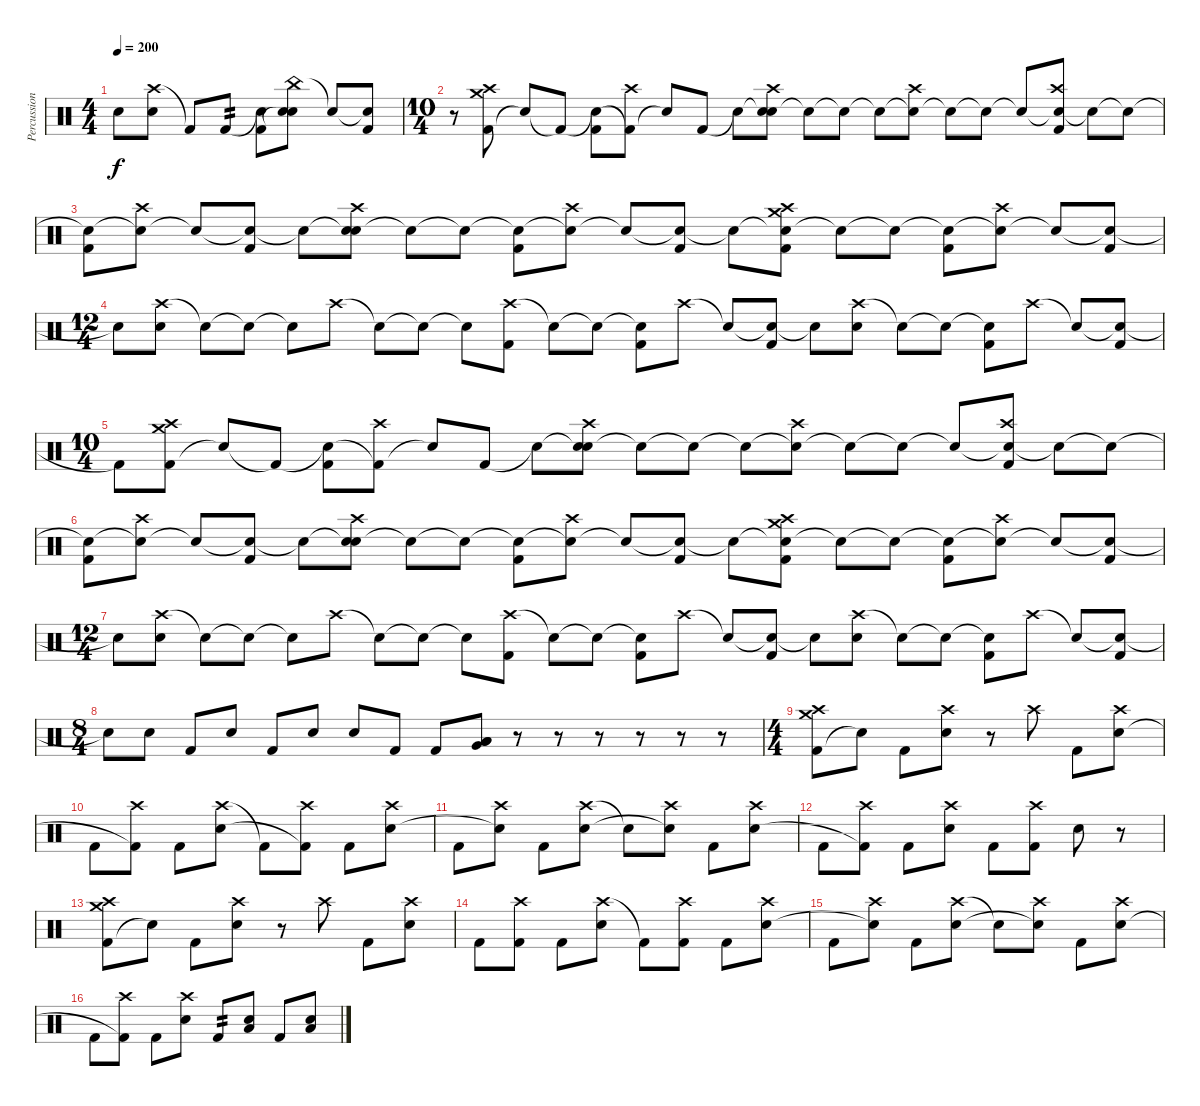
\track ("Percussion" "Percussion") {instrument percussion}
\staff {score}
\articulation defaults
\ts (4 4)
\tempo 200
\clef neutral
\ks c "Snare (hit)"{t}.8{dy f}
("Crash high (hit)" "Snare (hit) 2").8 "Kick (hit) 2"{t}.8 "Kick (hit) 2".8{tp 2} ("Snare (hit)"{t} "Kick (hit) 2").8 ("China (hit)" "Snare (hit)"{t} "Snare (hit) 2").8 "Snare (hit)"{t}.8 ("Snare (hit)"{t} "Kick (hit) 2").8 |
\ts (10 4)
r.8 ("Kick (hit) 2" "Crash high (hit)" "Crash medium (hit)").8 "Snare (hit)"{t}.8 "Kick (hit) 2"{t}.8 ("Snare (hit)"{t} "Kick (hit) 2").8 ("Kick (hit) 2"{t} "Crash high (hit)").8 "Snare (hit)"{t}.8 "Kick (hit) 2".8 "Snare (hit)"{t}.8 ("Snare (hit)"{t} "Snare (hit) 2" "Crash high (hit)").8 "Snare (hit)"{t}.8 "Snare (hit)"{t}.8 "Snare (hit)"{t}.8 ("Snare (hit)"{t} "Crash high (hit)").8 "Snare (hit)"{t}.8 "Snare (hit)"{t}.8 "Snare (hit)"{t}.8 ("Snare (hit)"{t} "Kick (hit) 2" "Crash high (hit)").8 "Snare (hit)"{t}.8 "Snare (hit)"{t}.8 |
("Snare (hit)"{t} "Kick (hit) 2").8 ("Snare (hit)"{t} "Crash high (hit)").8 "Snare (hit)"{t}.8 ("Snare (hit)"{t} "Kick (hit) 2").8 "Snare (hit)"{t}.8 ("Snare (hit)"{t} "Crash high (hit)" "Snare (hit) 2").8 "Snare (hit)"{t}.8 "Snare (hit)"{t}.8 ("Snare (hit)"{t} "Kick (hit) 2").8 ("Snare (hit)"{t} "Crash high (hit)").8 "Snare (hit)"{t}.8 ("Snare (hit)"{t} "Kick (hit) 2").8 "Snare (hit)"{t}.8 ("Snare (hit)"{t} "Crash medium (hit)" "Crash high (hit)" "Kick (hit) 2").8 "Snare (hit)"{t}.8 "Snare (hit)"{t}.8 ("Snare (hit)"{t} "Kick (hit) 2").8 ("Snare (hit)"{t} "Crash high (hit)").8 "Snare (hit)"{t}.8 ("Snare (hit)"{t} "Kick (hit) 2").8 |
\ts (12 4)
"Snare (hit)"{t}.8 ("Crash high (hit)" "Snare (hit) 2").8 "Snare (hit)"{t}.8 "Snare (hit)"{t}.8 "Snare (hit)"{t}.8 "Crash high (hit)".8 "Snare (hit)"{t}.8 "Snare (hit)"{t}.8 "Snare (hit)"{t}.8 ("Crash high (hit)" "Kick (hit) 2").8 "Snare (hit)"{t}.8 "Snare (hit)"{t}.8 ("Snare (hit)"{t} "Kick (hit) 2").8 "Crash high (hit)".8 "Snare (hit)"{t}.8 ("Snare (hit)"{t} "Kick (hit) 2").8 "Snare (hit)"{t}.8 ("Crash high (hit)" "Snare (hit) 2").8 "Snare (hit)"{t}.8 "Snare (hit)"{t}.8 ("Snare (hit)"{t} "Kick (hit) 2").8 "Crash high (hit)".8 "Snare (hit)"{t}.8 ("Snare (hit)"{t} "Kick (hit) 2").8 |
\ts (10 4)
"Kick (hit) 2"{t}.8 ("Kick (hit) 2" "Crash high (hit)" "Crash medium (hit)").8 "Snare (hit)"{t}.8 "Kick (hit) 2"{t}.8 ("Snare (hit)"{t} "Kick (hit) 2").8 ("Kick (hit) 2"{t} "Crash high (hit)").8 "Snare (hit)"{t}.8 "Kick (hit) 2".8 "Snare (hit)"{t}.8 ("Snare (hit)"{t} "Snare (hit) 2" "Crash high (hit)").8 "Snare (hit)"{t}.8 "Snare (hit)"{t}.8 "Snare (hit)"{t}.8 ("Snare (hit)"{t} "Crash high (hit)").8 "Snare (hit)"{t}.8 "Snare (hit)"{t}.8 "Snare (hit)"{t}.8 ("Snare (hit)"{t} "Kick (hit) 2" "Crash high (hit)").8 "Snare (hit)"{t}.8 "Snare (hit)"{t}.8 |
("Snare (hit)"{t} "Kick (hit) 2").8 ("Snare (hit)"{t} "Crash high (hit)").8 "Snare (hit)"{t}.8 ("Snare (hit)"{t} "Kick (hit) 2").8 "Snare (hit)"{t}.8 ("Snare (hit)"{t} "Crash high (hit)" "Snare (hit) 2").8 "Snare (hit)"{t}.8 "Snare (hit)"{t}.8 ("Snare (hit)"{t} "Kick (hit) 2").8 ("Snare (hit)"{t} "Crash high (hit)").8 "Snare (hit)"{t}.8 ("Snare (hit)"{t} "Kick (hit) 2").8 "Snare (hit)"{t}.8 ("Snare (hit)"{t} "Crash medium (hit)" "Crash high (hit)" "Kick (hit) 2").8 "Snare (hit)"{t}.8 "Snare (hit)"{t}.8 ("Snare (hit)"{t} "Kick (hit) 2").8 ("Snare (hit)"{t} "Crash high (hit)").8 "Snare (hit)"{t}.8 ("Snare (hit)"{t} "Kick (hit) 2").8 |
\ts (12 4)
"Snare (hit)"{t}.8 ("Crash high (hit)" "Snare (hit) 2").8 "Snare (hit)"{t}.8 "Snare (hit)"{t}.8 "Snare (hit)"{t}.8 "Crash high (hit)".8 "Snare (hit)"{t}.8 "Snare (hit)"{t}.8 "Snare (hit)"{t}.8 ("Crash high (hit)" "Kick (hit) 2").8 "Snare (hit)"{t}.8 "Snare (hit)"{t}.8 ("Snare (hit)"{t} "Kick (hit) 2").8 "Crash high (hit)".8 "Snare (hit)"{t}.8 ("Snare (hit)"{t} "Kick (hit) 2").8 "Snare (hit)"{t}.8 ("Crash high (hit)" "Snare (hit) 2").8 "Snare (hit)"{t}.8 "Snare (hit)"{t}.8 ("Snare (hit)"{t} "Kick (hit) 2").8 "Crash high (hit)".8 "Snare (hit)"{t}.8 ("Snare (hit)"{t} "Kick (hit) 2").8 |
\ts (8 4)
"Snare (hit)"{t}.8 "Snare (hit) 2".8 "Kick (hit) 2".8 "Snare (hit) 2".8 "Kick (hit) 2".8 "Snare (hit) 2".8 "Snare (hit) 2".8 "Kick (hit) 2".8 "Kick (hit) 2".8 ("Very Low Tom (hit)" "Low Tom (hit)" "Low Floor Tom (hit)").8 r.8 r.8 r.8 r.8 r.8 r.8 |
\ts (4 4)
("Kick (hit) 2" "Crash medium (hit)" "Crash high (hit)").8 "Snare (hit)"{t}.8 "Kick (hit) 2".8 ("Snare (hit) 2" "Crash high (hit)").8 r.8 "Crash high (hit)".8 "Kick (hit) 2".8 ("Crash high (hit)" "Snare (hit) 2").8 |
"Kick (hit) 2".8 ("Crash high (hit)" "Kick (hit) 2"{t}).8 "Kick (hit) 2".8 ("Crash high (hit)" "Snare (hit) 2").8 "Kick (hit) 2"{t}.8 ("Crash high (hit)" "Kick (hit) 2"{t}).8 "Kick (hit) 2".8 ("Crash high (hit)" "Snare (hit) 2").8 |
"Kick (hit) 2".8 ("Crash high (hit)" "Snare (hit)"{t}).8 "Kick (hit) 2".8 ("Crash high (hit)" "Snare (hit) 2").8 "Snare (hit)"{t}.8 ("Crash high (hit)" "Snare (hit)"{t}).8 "Kick (hit) 2".8 ("Crash high (hit)" "Snare (hit) 2").8 |
"Kick (hit) 2".8 ("Crash high (hit)" "Kick (hit) 2"{t}).8 "Kick (hit) 2".8 ("Crash high (hit)" "Snare (hit) 2").8 "Kick (hit) 2".8 ("Crash high (hit)" "Kick (hit) 2").8 "Snare (hit) 2".8 r.8 |
("Kick (hit) 2" "Crash medium (hit)" "Crash high (hit)").8 "Snare (hit)"{t}.8 "Kick (hit) 2".8 ("Snare (hit) 2" "Crash high (hit)").8 r.8 "Crash high (hit)".8 "Kick (hit) 2".8 ("Crash high (hit)" "Snare (hit) 2").8 |
"Kick (hit) 2".8 ("Crash high (hit)" "Kick (hit) 2").8 "Kick (hit) 2".8 ("Crash high (hit)" "Snare (hit) 2").8 "Kick (hit) 2"{t}.8 ("Crash high (hit)" "Kick (hit) 2").8 "Kick (hit) 2".8 ("Crash high (hit)" "Snare (hit) 2").8 |
"Kick (hit) 2".8 ("Crash high (hit)" "Snare (hit)"{t}).8 "Kick (hit) 2".8 ("Crash high (hit)" "Snare (hit) 2").8 "Snare (hit)"{t}.8 ("Crash high (hit)" "Snare (hit)"{t}).8 "Kick (hit) 2".8 ("Crash high (hit)" "Snare (hit) 2").8 |
"Kick (hit) 2".8 ("Crash high (hit)" "Kick (hit) 2"{t}).8 "Kick (hit) 2".8 ("Crash high (hit)" "Snare (hit) 2").8 "Kick (hit) 2".8{tp 2} ("Low Floor Tom (hit)" "Snare (hit) 2").8 "Kick (hit) 2".8 ("Low Floor Tom (hit)" "Snare (hit) 2").8
